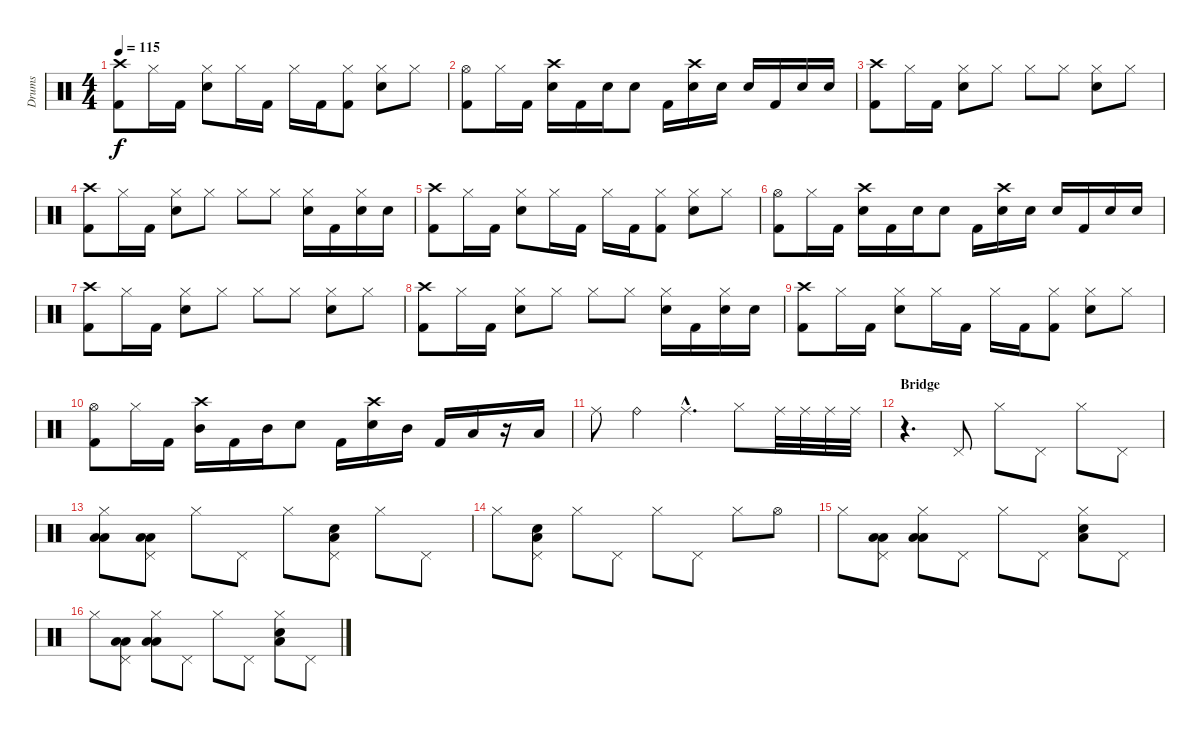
\track ("Drums" "Drums") {instrument percussion}
\staff {score}
\articulation defaults
\ts (4 4)
\tempo 115
\clef neutral
\ks c
("Crash high (hit)" "Kick (hit) 2").8{dy f} "Hi-Hat (closed)".16 "Kick (hit) 2".16 ("Hi-Hat (closed)" "Electric Snare (hit)").8 "Hi-Hat (closed)".16 "Kick (hit) 2".16 "Hi-Hat (closed)".16 "Kick (hit) 2".16 ("Hi-Hat (closed)" "Kick (hit) 2").8 ("Hi-Hat (closed)" "Electric Snare (hit)").8 "Hi-Hat (closed)".8 |
("Hi-Hat (open)" "Kick (hit) 2").8 "Hi-Hat (closed)".16 "Kick (hit) 2".16 ("Crash high (hit)" "Electric Snare (hit)").16 "Kick (hit) 2".16 "Electric Snare (hit)".16 "Electric Snare (hit)".8 "Kick (hit) 2".16 ("Crash high (hit)" "Electric Snare (hit)").16 "Electric Snare (hit)".16 "Electric Snare (hit)".16 "Kick (hit) 2".16 "Electric Snare (hit)".16 "Electric Snare (hit)".16 |
("Crash high (hit)" "Kick (hit) 2").8 "Hi-Hat (closed)".16 "Kick (hit) 2".16 ("Hi-Hat (closed)" "Electric Snare (hit)").8 "Hi-Hat (closed)".8 "Hi-Hat (closed)".8 "Hi-Hat (closed)".8 ("Hi-Hat (closed)" "Electric Snare (hit)").8 "Hi-Hat (closed)".8 |
("Crash high (hit)" "Kick (hit) 2").8 "Hi-Hat (closed)".16 "Kick (hit) 2".16 ("Hi-Hat (closed)" "Electric Snare (hit)").8 "Hi-Hat (closed)".8 "Hi-Hat (closed)".8 "Hi-Hat (closed)".8 ("Hi-Hat (closed)" "Electric Snare (hit)").16 "Kick (hit) 2".16 ("Hi-Hat (closed)" "Electric Snare (hit)").16 "Electric Snare (hit)".16 |
("Crash high (hit)" "Kick (hit) 2").8 "Hi-Hat (closed)".16 "Kick (hit) 2".16 ("Hi-Hat (closed)" "Electric Snare (hit)").8 "Hi-Hat (closed)".16 "Kick (hit) 2".16 "Hi-Hat (closed)".16 "Kick (hit) 2".16 ("Hi-Hat (closed)" "Kick (hit) 2").8 ("Hi-Hat (closed)" "Electric Snare (hit)").8 "Hi-Hat (closed)".8 |
("Hi-Hat (open)" "Kick (hit) 2").8 "Hi-Hat (closed)".16 "Kick (hit) 2".16 ("Crash high (hit)" "Electric Snare (hit)").16 "Kick (hit) 2".16 "Electric Snare (hit)".16 "Electric Snare (hit)".8 "Kick (hit) 2".16 ("Crash high (hit)" "Electric Snare (hit)").16 "Electric Snare (hit)".16 "Electric Snare (hit)".16 "Kick (hit) 2".16 "Electric Snare (hit)".16 "Electric Snare (hit)".16 |
("Crash high (hit)" "Kick (hit) 2").8 "Hi-Hat (closed)".16 "Kick (hit) 2".16 ("Hi-Hat (closed)" "Electric Snare (hit)").8 "Hi-Hat (closed)".8 "Hi-Hat (closed)".8 "Hi-Hat (closed)".8 ("Hi-Hat (closed)" "Electric Snare (hit)").8 "Hi-Hat (closed)".8 |
("Crash high (hit)" "Kick (hit) 2").8 "Hi-Hat (closed)".16 "Kick (hit) 2".16 ("Hi-Hat (closed)" "Electric Snare (hit)").8 "Hi-Hat (closed)".8 "Hi-Hat (closed)".8 "Hi-Hat (closed)".8 ("Hi-Hat (closed)" "Electric Snare (hit)").16 "Kick (hit) 2".16 ("Hi-Hat (closed)" "Electric Snare (hit)").16 "Electric Snare (hit)".16 |
("Crash high (hit)" "Kick (hit) 2").8 "Hi-Hat (closed)".16 "Kick (hit) 2".16 ("Hi-Hat (closed)" "Electric Snare (hit)").8 "Hi-Hat (closed)".16 "Kick (hit) 2".16 "Hi-Hat (closed)".16 "Kick (hit) 2".16 ("Hi-Hat (closed)" "Kick (hit) 2").8 ("Hi-Hat (closed)" "Electric Snare (hit)").8 "Hi-Hat (closed)".8 |
("Hi-Hat (open)" "Kick (hit) 2").8 "Hi-Hat (closed)".16 "Kick (hit) 2".16 ("Crash high (hit)" "Mid Tom (hit)").16 "Kick (hit) 2".16 "Mid Tom (hit)".16 "Electric Snare (hit)".8 "Kick (hit) 2".16 ("Crash high (hit)" "Electric Snare (hit)").16 "Mid Tom (hit)".16 "Kick (hit) 2".16 "Low Tom (hit)".16 r.16 "Low Floor Tom (hit)".16 |
"Ride (middle)".8 "Ride (bell)".4 "Ride (middle)"{hac}.4{d} "Hi-Hat (closed)".8 "Ride (middle)".32 "Ride (middle)".32 "Ride (middle)".32 "Ride (middle)".32 |
\section ("" "Bridge")
r.4{d} "Pedal Hi-Hat (hit)".8 "Hi-Hat (closed)".8 "Pedal Hi-Hat (hit)".8 "Hi-Hat (closed)".8 "Pedal Hi-Hat (hit)".8 |
("Hi-Hat (closed)" "Low Tom (hit)" "Low Floor Tom (hit)").8 ("Pedal Hi-Hat (hit)" "Low Tom (hit)" "Low Floor Tom (hit)").8 "Hi-Hat (closed)".8 "Pedal Hi-Hat (hit)".8 "Hi-Hat (closed)".8 ("Pedal Hi-Hat (hit)" "Electric Snare (hit)" "Low Floor Tom (hit)").8 "Hi-Hat (closed)".8 "Pedal Hi-Hat (hit)".8 |
"Hi-Hat (closed)".8 ("Pedal Hi-Hat (hit)" "Electric Snare (hit)" "Low Floor Tom (hit)").8 "Hi-Hat (closed)".8 "Pedal Hi-Hat (hit)".8 "Hi-Hat (closed)".8 "Pedal Hi-Hat (hit)".8 "Hi-Hat (closed)".8 "Hi-Hat (open)".8 |
"Hi-Hat (closed)".8 ("Pedal Hi-Hat (hit)" "Low Tom (hit)" "Low Floor Tom (hit)").8 ("Hi-Hat (closed)" "Low Tom (hit)" "Low Floor Tom (hit)").8 "Pedal Hi-Hat (hit)".8 "Hi-Hat (closed)".8 "Pedal Hi-Hat (hit)".8 ("Hi-Hat (closed)" "Electric Snare (hit)" "Low Floor Tom (hit)").8 "Pedal Hi-Hat (hit)".8 |
"Hi-Hat (closed)".8 ("Pedal Hi-Hat (hit)" "Low Tom (hit)" "Low Floor Tom (hit)").8 ("Hi-Hat (closed)" "Low Tom (hit)" "Low Floor Tom (hit)").8 "Pedal Hi-Hat (hit)".8 "Hi-Hat (closed)".8 "Pedal Hi-Hat (hit)".8 ("Hi-Hat (closed)" "Electric Snare (hit)" "Low Floor Tom (hit)").8 "Pedal Hi-Hat (hit)".8
